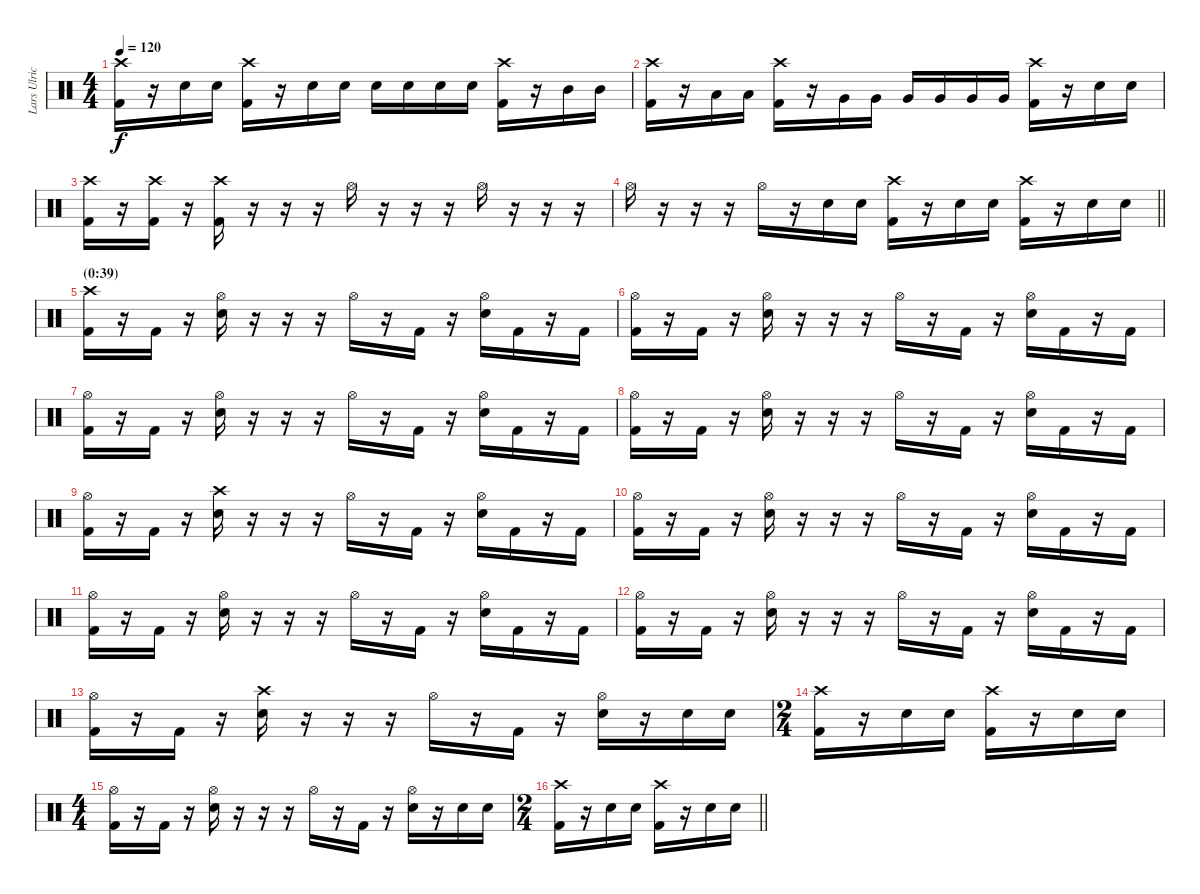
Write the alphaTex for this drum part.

\track ("Lars Ulrich" "Lars Ulric") {instrument percussion}
\staff {score}
\articulation defaults
\ts (4 4)
\tempo 120
\clef neutral
\ks c
("Crash high (hit)" "Kick (hit) 2").16{dy f} r.16 "Electric Snare (hit)".16 "Electric Snare (hit)".16 ("Crash high (hit)" "Kick (hit) 2").16 r.16 "Electric Snare (hit)".16 "Electric Snare (hit)".16 "Electric Snare (hit)".16 "Electric Snare (hit)".16 "Electric Snare (hit)".16 "Electric Snare (hit)".16 ("Crash high (hit)" "Kick (hit) 2").16 r.16 "Mid Tom (hit)".16 "Mid Tom (hit)".16 |
("Crash high (hit)" "Kick (hit) 2").16 r.16 "Low Tom (hit)".16 "Low Tom (hit)".16 ("Crash high (hit)" "Kick (hit) 2").16 r.16 "Very Low Tom (hit)".16 "Very Low Tom (hit)".16 "Very Low Tom (hit)".16 "Very Low Tom (hit)".16 "Very Low Tom (hit)".16 "Very Low Tom (hit)".16 ("Crash high (hit)" "Kick (hit) 2").16 r.16 "Electric Snare (hit)".16 "Electric Snare (hit)".16 |
("Crash high (hit)" "Kick (hit) 2").16 r.16 ("Crash high (hit)" "Kick (hit) 2").16 r.16 ("Crash high (hit)" "Kick (hit) 2").16 r.16 r.16 r.16 "Hi-Hat (open)".16 r.16 r.16 r.16 "Hi-Hat (open)".16 r.16 r.16 r.16 |
\barLineRight lightlight "Hi-Hat (open)".16
r.16 r.16 r.16 "Hi-Hat (open)".16 r.16 "Electric Snare (hit)".16 "Electric Snare (hit)".16 ("Crash high (hit)" "Kick (hit) 2").16 r.16 "Electric Snare (hit)".16 "Electric Snare (hit)".16 ("Crash high (hit)" "Kick (hit) 2").16 r.16 "Electric Snare (hit)".16 "Electric Snare (hit)".16 |
\section ("" "(0:39)")
("Crash high (hit)" "Kick (hit) 2").16 r.16 "Kick (hit) 2".16 r.16 ("Electric Snare (hit)" "Hi-Hat (open)").16 r.16 r.16 r.16 "Hi-Hat (open)".16 r.16 "Kick (hit) 2".16 r.16 ("Electric Snare (hit)" "Hi-Hat (open)").16 "Kick (hit) 2".16 r.16 "Kick (hit) 2".16 |
("Hi-Hat (open)" "Kick (hit) 2").16 r.16 "Kick (hit) 2".16 r.16 ("Electric Snare (hit)" "Hi-Hat (open)").16 r.16 r.16 r.16 "Hi-Hat (open)".16 r.16 "Kick (hit) 2".16 r.16 ("Electric Snare (hit)" "Hi-Hat (open)").16 "Kick (hit) 2".16 r.16 "Kick (hit) 2".16 |
("Hi-Hat (open)" "Kick (hit) 2").16 r.16 "Kick (hit) 2".16 r.16 ("Electric Snare (hit)" "Hi-Hat (open)").16 r.16 r.16 r.16 "Hi-Hat (open)".16 r.16 "Kick (hit) 2".16 r.16 ("Electric Snare (hit)" "Hi-Hat (open)").16 "Kick (hit) 2".16 r.16 "Kick (hit) 2".16 |
("Hi-Hat (open)" "Kick (hit) 2").16 r.16 "Kick (hit) 2".16 r.16 ("Electric Snare (hit)" "Hi-Hat (open)").16 r.16 r.16 r.16 "Hi-Hat (open)".16 r.16 "Kick (hit) 2".16 r.16 ("Electric Snare (hit)" "Hi-Hat (open)").16 "Kick (hit) 2".16 r.16 "Kick (hit) 2".16 |
("Hi-Hat (open)" "Kick (hit) 2").16 r.16 "Kick (hit) 2".16 r.16 ("Crash high (hit)" "Electric Snare (hit)").16 r.16 r.16 r.16 "Hi-Hat (open)".16 r.16 "Kick (hit) 2".16 r.16 ("Electric Snare (hit)" "Hi-Hat (open)").16 "Kick (hit) 2".16 r.16 "Kick (hit) 2".16 |
("Hi-Hat (open)" "Kick (hit) 2").16 r.16 "Kick (hit) 2".16 r.16 ("Electric Snare (hit)" "Hi-Hat (open)").16 r.16 r.16 r.16 "Hi-Hat (open)".16 r.16 "Kick (hit) 2".16 r.16 ("Electric Snare (hit)" "Hi-Hat (open)").16 "Kick (hit) 2".16 r.16 "Kick (hit) 2".16 |
("Hi-Hat (open)" "Kick (hit) 2").16 r.16 "Kick (hit) 2".16 r.16 ("Electric Snare (hit)" "Hi-Hat (open)").16 r.16 r.16 r.16 "Hi-Hat (open)".16 r.16 "Kick (hit) 2".16 r.16 ("Electric Snare (hit)" "Hi-Hat (open)").16 "Kick (hit) 2".16 r.16 "Kick (hit) 2".16 |
("Hi-Hat (open)" "Kick (hit) 2").16 r.16 "Kick (hit) 2".16 r.16 ("Electric Snare (hit)" "Hi-Hat (open)").16 r.16 r.16 r.16 "Hi-Hat (open)".16 r.16 "Kick (hit) 2".16 r.16 ("Electric Snare (hit)" "Hi-Hat (open)").16 "Kick (hit) 2".16 r.16 "Kick (hit) 2".16 |
("Hi-Hat (open)" "Kick (hit) 2").16 r.16 "Kick (hit) 2".16 r.16 ("Crash high (hit)" "Electric Snare (hit)").16 r.16 r.16 r.16 "Hi-Hat (open)".16 r.16 "Kick (hit) 2".16 r.16 ("Electric Snare (hit)" "Hi-Hat (open)").16 r.16 "Electric Snare (hit)".16 "Electric Snare (hit)".16 |
\ts (2 4)
("Crash high (hit)" "Kick (hit) 2").16 r.16 "Electric Snare (hit)".16 "Electric Snare (hit)".16 ("Crash high (hit)" "Kick (hit) 2").16 r.16 "Electric Snare (hit)".16 "Electric Snare (hit)".16 |
\ts (4 4)
("Hi-Hat (open)" "Kick (hit) 2").16 r.16 "Kick (hit) 2".16 r.16 ("Electric Snare (hit)" "Hi-Hat (open)").16 r.16 r.16 r.16 "Hi-Hat (open)".16 r.16 "Kick (hit) 2".16 r.16 ("Electric Snare (hit)" "Hi-Hat (open)").16 r.16 "Electric Snare (hit)".16 "Electric Snare (hit)".16 |
\ts (2 4)
\barLineRight lightlight
("Crash high (hit)" "Kick (hit) 2").16 r.16 "Electric Snare (hit)".16 "Electric Snare (hit)".16 ("Crash high (hit)" "Kick (hit) 2").16 r.16 "Electric Snare (hit)".16 "Electric Snare (hit)".16
